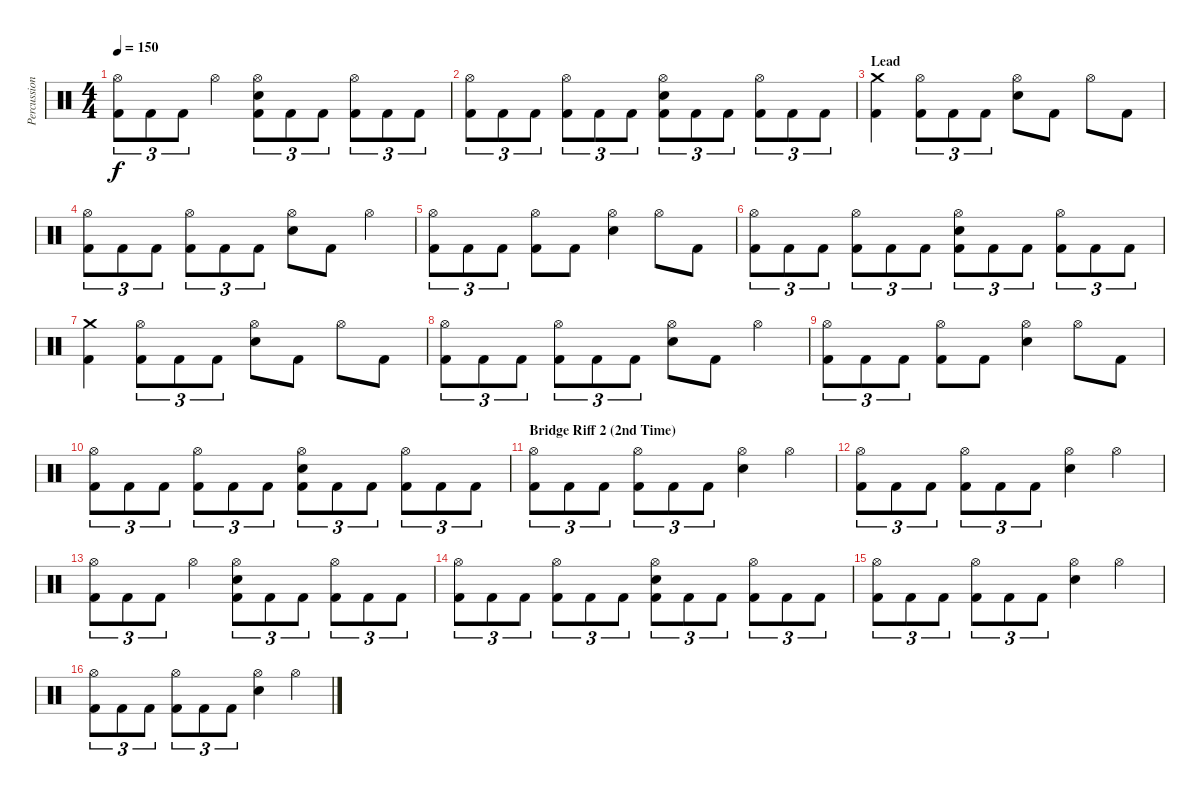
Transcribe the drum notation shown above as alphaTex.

\track ("Percussion" "Percussion") {instrument percussion}
\staff {score}
\articulation defaults
\ts (4 4)
\tempo 150
\clef neutral
\ks c
("Hi-Hat (open)" "Kick (hit) 2").8{tu (3 2) dy f} "Kick (hit) 2".8{tu (3 2)} "Kick (hit) 2".8{tu (3 2)} "Hi-Hat (open)".4 ("Hi-Hat (open)" "Electric Snare (hit)" "Kick (hit) 2").8{tu (3 2)} "Kick (hit) 2".8{tu (3 2)} "Kick (hit) 2".8{tu (3 2)} ("Hi-Hat (open)" "Kick (hit) 2").8{tu (3 2)} "Kick (hit) 2".8{tu (3 2)} "Kick (hit) 2".8{tu (3 2)} |
("Hi-Hat (open)" "Kick (hit) 2").8{tu (3 2)} "Kick (hit) 2".8{tu (3 2)} "Kick (hit) 2".8{tu (3 2)} ("Hi-Hat (open)" "Kick (hit) 2").8{tu (3 2)} "Kick (hit) 2".8{tu (3 2)} "Kick (hit) 2".8{tu (3 2)} ("Hi-Hat (open)" "Electric Snare (hit)" "Kick (hit) 2").8{tu (3 2)} "Kick (hit) 2".8{tu (3 2)} "Kick (hit) 2".8{tu (3 2)} ("Hi-Hat (open)" "Kick (hit) 2").8{tu (3 2)} "Kick (hit) 2".8{tu (3 2)} "Kick (hit) 2".8{tu (3 2)} |
\section ("" "Lead")
("Crash medium (hit)" "Kick (hit) 2").4 ("Hi-Hat (open)" "Kick (hit) 2").8{tu (3 2)} "Kick (hit) 2".8{tu (3 2)} "Kick (hit) 2".8{tu (3 2)} ("Hi-Hat (open)" "Electric Snare (hit)").8 "Kick (hit) 2".8 "Hi-Hat (open)".8 "Kick (hit) 2".8 |
("Hi-Hat (open)" "Kick (hit) 2").8{tu (3 2)} "Kick (hit) 2".8{tu (3 2)} "Kick (hit) 2".8{tu (3 2)} ("Hi-Hat (open)" "Kick (hit) 2").8{tu (3 2)} "Kick (hit) 2".8{tu (3 2)} "Kick (hit) 2".8{tu (3 2)} ("Hi-Hat (open)" "Electric Snare (hit)").8 "Kick (hit) 2".8 "Hi-Hat (open)".4 |
("Hi-Hat (open)" "Kick (hit) 2").8{tu (3 2)} "Kick (hit) 2".8{tu (3 2)} "Kick (hit) 2".8{tu (3 2)} ("Hi-Hat (open)" "Kick (hit) 2").8 "Kick (hit) 2".8 ("Hi-Hat (open)" "Electric Snare (hit)").4 "Hi-Hat (open)".8 "Kick (hit) 2".8 |
("Hi-Hat (open)" "Kick (hit) 2").8{tu (3 2)} "Kick (hit) 2".8{tu (3 2)} "Kick (hit) 2".8{tu (3 2)} ("Hi-Hat (open)" "Kick (hit) 2").8{tu (3 2)} "Kick (hit) 2".8{tu (3 2)} "Kick (hit) 2".8{tu (3 2)} ("Hi-Hat (open)" "Electric Snare (hit)" "Kick (hit) 2").8{tu (3 2)} "Kick (hit) 2".8{tu (3 2)} "Kick (hit) 2".8{tu (3 2)} ("Hi-Hat (open)" "Kick (hit) 2").8{tu (3 2)} "Kick (hit) 2".8{tu (3 2)} "Kick (hit) 2".8{tu (3 2)} |
("Crash medium (hit)" "Kick (hit) 2").4 ("Hi-Hat (open)" "Kick (hit) 2").8{tu (3 2)} "Kick (hit) 2".8{tu (3 2)} "Kick (hit) 2".8{tu (3 2)} ("Hi-Hat (open)" "Electric Snare (hit)").8 "Kick (hit) 2".8 "Hi-Hat (open)".8 "Kick (hit) 2".8 |
("Hi-Hat (open)" "Kick (hit) 2").8{tu (3 2)} "Kick (hit) 2".8{tu (3 2)} "Kick (hit) 2".8{tu (3 2)} ("Hi-Hat (open)" "Kick (hit) 2").8{tu (3 2)} "Kick (hit) 2".8{tu (3 2)} "Kick (hit) 2".8{tu (3 2)} ("Hi-Hat (open)" "Electric Snare (hit)").8 "Kick (hit) 2".8 "Hi-Hat (open)".4 |
("Hi-Hat (open)" "Kick (hit) 2").8{tu (3 2)} "Kick (hit) 2".8{tu (3 2)} "Kick (hit) 2".8{tu (3 2)} ("Hi-Hat (open)" "Kick (hit) 2").8 "Kick (hit) 2".8 ("Hi-Hat (open)" "Electric Snare (hit)").4 "Hi-Hat (open)".8 "Kick (hit) 2".8 |
("Hi-Hat (open)" "Kick (hit) 2").8{tu (3 2)} "Kick (hit) 2".8{tu (3 2)} "Kick (hit) 2".8{tu (3 2)} ("Hi-Hat (open)" "Kick (hit) 2").8{tu (3 2)} "Kick (hit) 2".8{tu (3 2)} "Kick (hit) 2".8{tu (3 2)} ("Hi-Hat (open)" "Electric Snare (hit)" "Kick (hit) 2").8{tu (3 2)} "Kick (hit) 2".8{tu (3 2)} "Kick (hit) 2".8{tu (3 2)} ("Hi-Hat (open)" "Kick (hit) 2").8{tu (3 2)} "Kick (hit) 2".8{tu (3 2)} "Kick (hit) 2".8{tu (3 2)} |
\section ("" "Bridge Riff 2 (2nd Time)")
("Hi-Hat (open)" "Kick (hit) 2").8{tu (3 2)} "Kick (hit) 2".8{tu (3 2)} "Kick (hit) 2".8{tu (3 2)} ("Hi-Hat (open)" "Kick (hit) 2").8{tu (3 2)} "Kick (hit) 2".8{tu (3 2)} "Kick (hit) 2".8{tu (3 2)} ("Hi-Hat (open)" "Electric Snare (hit)").4 "Hi-Hat (open)".4 |
("Hi-Hat (open)" "Kick (hit) 2").8{tu (3 2)} "Kick (hit) 2".8{tu (3 2)} "Kick (hit) 2".8{tu (3 2)} ("Hi-Hat (open)" "Kick (hit) 2").8{tu (3 2)} "Kick (hit) 2".8{tu (3 2)} "Kick (hit) 2".8{tu (3 2)} ("Hi-Hat (open)" "Electric Snare (hit)").4 "Hi-Hat (open)".4 |
("Hi-Hat (open)" "Kick (hit) 2").8{tu (3 2)} "Kick (hit) 2".8{tu (3 2)} "Kick (hit) 2".8{tu (3 2)} "Hi-Hat (open)".4 ("Hi-Hat (open)" "Electric Snare (hit)" "Kick (hit) 2").8{tu (3 2)} "Kick (hit) 2".8{tu (3 2)} "Kick (hit) 2".8{tu (3 2)} ("Hi-Hat (open)" "Kick (hit) 2").8{tu (3 2)} "Kick (hit) 2".8{tu (3 2)} "Kick (hit) 2".8{tu (3 2)} |
("Hi-Hat (open)" "Kick (hit) 2").8{tu (3 2)} "Kick (hit) 2".8{tu (3 2)} "Kick (hit) 2".8{tu (3 2)} ("Hi-Hat (open)" "Kick (hit) 2").8{tu (3 2)} "Kick (hit) 2".8{tu (3 2)} "Kick (hit) 2".8{tu (3 2)} ("Hi-Hat (open)" "Electric Snare (hit)" "Kick (hit) 2").8{tu (3 2)} "Kick (hit) 2".8{tu (3 2)} "Kick (hit) 2".8{tu (3 2)} ("Hi-Hat (open)" "Kick (hit) 2").8{tu (3 2)} "Kick (hit) 2".8{tu (3 2)} "Kick (hit) 2".8{tu (3 2)} |
("Hi-Hat (open)" "Kick (hit) 2").8{tu (3 2)} "Kick (hit) 2".8{tu (3 2)} "Kick (hit) 2".8{tu (3 2)} ("Hi-Hat (open)" "Kick (hit) 2").8{tu (3 2)} "Kick (hit) 2".8{tu (3 2)} "Kick (hit) 2".8{tu (3 2)} ("Hi-Hat (open)" "Electric Snare (hit)").4 "Hi-Hat (open)".4 |
("Hi-Hat (open)" "Kick (hit) 2").8{tu (3 2)} "Kick (hit) 2".8{tu (3 2)} "Kick (hit) 2".8{tu (3 2)} ("Hi-Hat (open)" "Kick (hit) 2").8{tu (3 2)} "Kick (hit) 2".8{tu (3 2)} "Kick (hit) 2".8{tu (3 2)} ("Hi-Hat (open)" "Electric Snare (hit)").4 "Hi-Hat (open)".4
